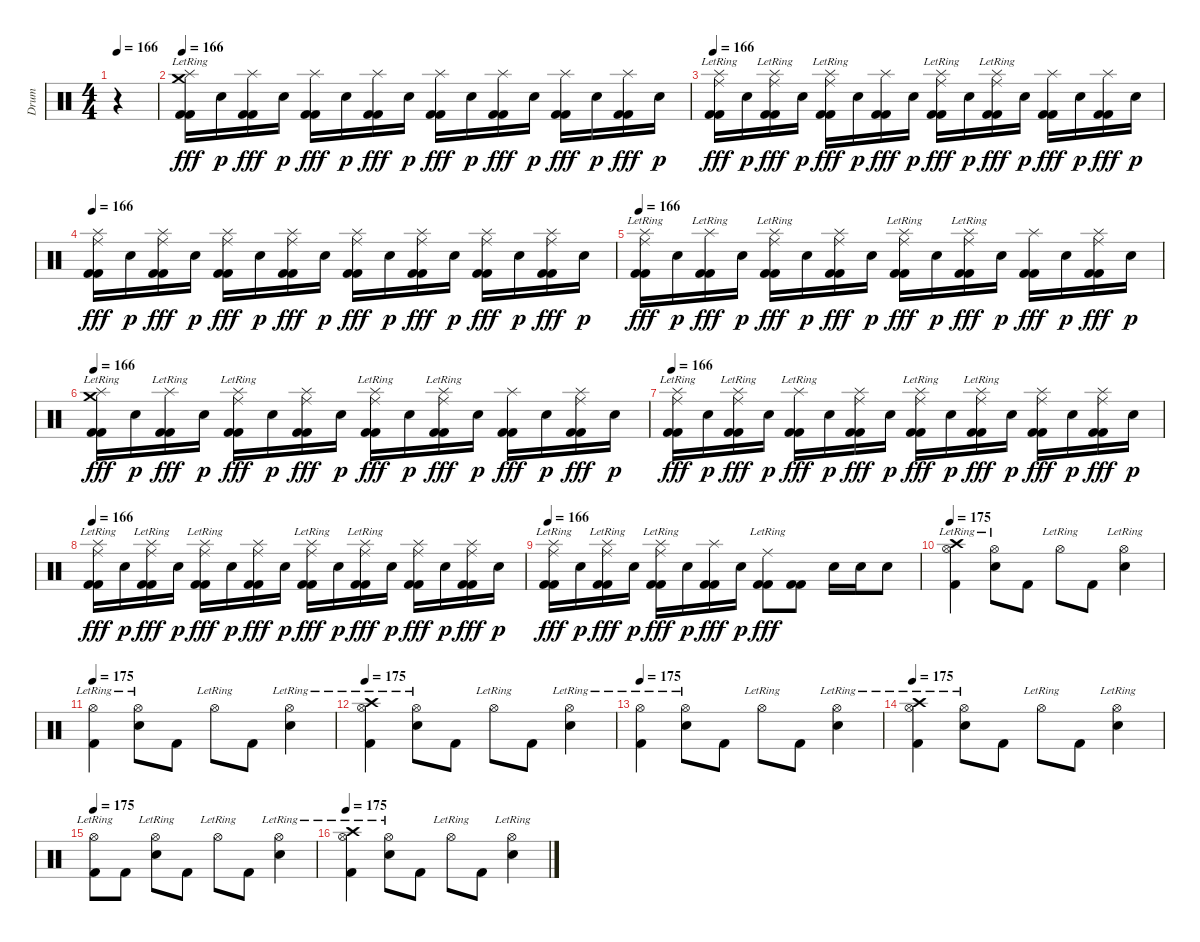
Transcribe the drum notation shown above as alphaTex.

\track ("Drum" "Drum") {instrument percussion}
\staff {score}
\articulation defaults
\ts (4 4)
\tempo 166
\clef neutral
\ks c
r.4{dy fff} |
\tempo 166
("Crash medium (hit)"{lr} "Splash (hit)" "Kick (hit) 2" "Kick (hit) 2").16 "Electric Snare (hit)".16{dy p} ("Splash (hit)" "Kick (hit) 2" "Kick (hit) 2").16{dy fff} "Electric Snare (hit)".16{dy p} ("Splash (hit)" "Kick (hit) 2" "Kick (hit) 2").16{dy fff} "Electric Snare (hit)".16{dy p} ("Splash (hit)" "Kick (hit) 2" "Kick (hit) 2").16{dy fff} "Electric Snare (hit)".16{dy p} ("Splash (hit)" "Kick (hit) 2" "Kick (hit) 2").16{dy fff} "Electric Snare (hit)".16{dy p} ("Splash (hit)" "Kick (hit) 2" "Kick (hit) 2").16{dy fff} "Electric Snare (hit)".16{dy p} ("Splash (hit)" "Kick (hit) 2" "Kick (hit) 2").16{dy fff} "Electric Snare (hit)".16{dy p} ("Splash (hit)" "Kick (hit) 2" "Kick (hit) 2").16{dy fff} "Electric Snare (hit)".16{dy p} |
\tempo 166
("Ride (middle)" "Splash (hit)"{lr} "Kick (hit) 2" "Kick (hit) 2").16{dy fff} "Electric Snare (hit)".16{dy p} ("Ride (middle)" "Splash (hit)"{lr} "Kick (hit) 2" "Kick (hit) 2").16{dy fff} "Electric Snare (hit)".16{dy p} ("Ride (middle)" "Splash (hit)"{lr} "Kick (hit) 2" "Kick (hit) 2").16{dy fff} "Electric Snare (hit)".16{dy p} ("Splash (hit)" "Kick (hit) 2" "Kick (hit) 2").16{dy fff} "Electric Snare (hit)".16{dy p} ("Ride (middle)" "Splash (hit)"{lr} "Kick (hit) 2" "Kick (hit) 2").16{dy fff} "Electric Snare (hit)".16{dy p} ("Ride (middle)" "Splash (hit)"{lr} "Kick (hit) 2" "Kick (hit) 2").16{dy fff} "Electric Snare (hit)".16{dy p} ("Splash (hit)" "Kick (hit) 2" "Kick (hit) 2").16{dy fff} "Electric Snare (hit)".16{dy p} ("Splash (hit)" "Kick (hit) 2" "Kick (hit) 2").16{dy fff} "Electric Snare (hit)".16{dy p} |
\tempo 166
("Ride (middle)" "Splash (hit)" "Kick (hit) 2" "Kick (hit) 2").16{dy fff} "Electric Snare (hit)".16{dy p} ("Ride (middle)" "Splash (hit)" "Kick (hit) 2" "Kick (hit) 2").16{dy fff} "Electric Snare (hit)".16{dy p} ("Ride (middle)" "Splash (hit)" "Kick (hit) 2" "Kick (hit) 2").16{dy fff} "Electric Snare (hit)".16{dy p} ("Ride (middle)" "Splash (hit)" "Kick (hit) 2" "Kick (hit) 2").16{dy fff} "Electric Snare (hit)".16{dy p} ("Ride (middle)" "Splash (hit)" "Kick (hit) 2" "Kick (hit) 2").16{dy fff} "Electric Snare (hit)".16{dy p} ("Ride (middle)" "Splash (hit)" "Kick (hit) 2" "Kick (hit) 2").16{dy fff} "Electric Snare (hit)".16{dy p} ("Ride (middle)" "Splash (hit)" "Kick (hit) 2" "Kick (hit) 2").16{dy fff} "Electric Snare (hit)".16{dy p} ("Ride (middle)" "Splash (hit)" "Kick (hit) 2" "Kick (hit) 2").16{dy fff} "Electric Snare (hit)".16{dy p} |
\tempo 166
("Ride (middle)" "Splash (hit)"{lr} "Kick (hit) 2" "Kick (hit) 2").16{dy fff} "Electric Snare (hit)".16{dy p} ("Splash (hit)"{lr} "Kick (hit) 2" "Kick (hit) 2").16{dy fff} "Electric Snare (hit)".16{dy p} ("Ride (middle)" "Splash (hit)"{lr} "Kick (hit) 2" "Kick (hit) 2").16{dy fff} "Electric Snare (hit)".16{dy p} ("Ride (middle)" "Splash (hit)" "Kick (hit) 2" "Kick (hit) 2").16{dy fff} "Electric Snare (hit)".16{dy p} ("Ride (middle)" "Splash (hit)"{lr} "Kick (hit) 2" "Kick (hit) 2").16{dy fff} "Electric Snare (hit)".16{dy p} ("Ride (middle)" "Splash (hit)"{lr} "Kick (hit) 2" "Kick (hit) 2").16{dy fff} "Electric Snare (hit)".16{dy p} ("Splash (hit)" "Kick (hit) 2" "Kick (hit) 2").16{dy fff} "Electric Snare (hit)".16{dy p} ("Ride (middle)" "Splash (hit)" "Kick (hit) 2" "Kick (hit) 2").16{dy fff} "Electric Snare (hit)".16{dy p} |
\tempo 166
("Crash medium (hit)"{lr} "Splash (hit)"{lr} "Kick (hit) 2" "Kick (hit) 2").16{dy fff} "Electric Snare (hit)".16{dy p} ("Splash (hit)"{lr} "Kick (hit) 2" "Kick (hit) 2").16{dy fff} "Electric Snare (hit)".16{dy p} ("Ride (middle)" "Splash (hit)"{lr} "Kick (hit) 2" "Kick (hit) 2").16{dy fff} "Electric Snare (hit)".16{dy p} ("Ride (middle)" "Splash (hit)" "Kick (hit) 2" "Kick (hit) 2").16{dy fff} "Electric Snare (hit)".16{dy p} ("Ride (middle)" "Splash (hit)"{lr} "Kick (hit) 2" "Kick (hit) 2").16{dy fff} "Electric Snare (hit)".16{dy p} ("Ride (middle)" "Splash (hit)"{lr} "Kick (hit) 2" "Kick (hit) 2").16{dy fff} "Electric Snare (hit)".16{dy p} ("Splash (hit)" "Kick (hit) 2" "Kick (hit) 2").16{dy fff} "Electric Snare (hit)".16{dy p} ("Ride (middle)" "Splash (hit)" "Kick (hit) 2" "Kick (hit) 2").16{dy fff} "Electric Snare (hit)".16{dy p} |
\tempo 166
("Ride (middle)" "Splash (hit)"{lr} "Kick (hit) 2" "Kick (hit) 2").16{dy fff} "Electric Snare (hit)".16{dy p} ("Ride (middle)" "Splash (hit)"{lr} "Kick (hit) 2" "Kick (hit) 2").16{dy fff} "Electric Snare (hit)".16{dy p} ("Splash (hit)"{lr} "Kick (hit) 2" "Kick (hit) 2").16{dy fff} "Electric Snare (hit)".16{dy p} ("Ride (middle)" "Splash (hit)" "Kick (hit) 2" "Kick (hit) 2").16{dy fff} "Electric Snare (hit)".16{dy p} ("Ride (middle)" "Splash (hit)"{lr} "Kick (hit) 2" "Kick (hit) 2").16{dy fff} "Electric Snare (hit)".16{dy p} ("Ride (middle)" "Splash (hit)"{lr} "Kick (hit) 2" "Kick (hit) 2").16{dy fff} "Electric Snare (hit)".16{dy p} ("Ride (middle)" "Splash (hit)" "Kick (hit) 2" "Kick (hit) 2").16{dy fff} "Electric Snare (hit)".16{dy p} ("Ride (middle)" "Splash (hit)" "Kick (hit) 2" "Kick (hit) 2").16{dy fff} "Electric Snare (hit)".16{dy p} |
\tempo 166
("Ride (middle)" "Splash (hit)"{lr} "Kick (hit) 2" "Kick (hit) 2").16{dy fff} "Electric Snare (hit)".16{dy p} ("Ride (middle)" "Splash (hit)"{lr} "Kick (hit) 2" "Kick (hit) 2").16{dy fff} "Electric Snare (hit)".16{dy p} ("Ride (middle)" "Splash (hit)"{lr} "Kick (hit) 2" "Kick (hit) 2").16{dy fff} "Electric Snare (hit)".16{dy p} ("Ride (middle)" "Splash (hit)" "Kick (hit) 2" "Kick (hit) 2").16{dy fff} "Electric Snare (hit)".16{dy p} ("Ride (middle)" "Splash (hit)"{lr} "Kick (hit) 2" "Kick (hit) 2").16{dy fff} "Electric Snare (hit)".16{dy p} ("Ride (middle)" "Splash (hit)"{lr} "Kick (hit) 2" "Kick (hit) 2").16{dy fff} "Electric Snare (hit)".16{dy p} ("Ride (middle)" "Splash (hit)" "Kick (hit) 2" "Kick (hit) 2").16{dy fff} "Electric Snare (hit)".16{dy p} ("Ride (middle)" "Splash (hit)" "Kick (hit) 2" "Kick (hit) 2").16{dy fff} "Electric Snare (hit)".16{dy p} |
\tempo 166
("Ride (middle)" "Splash (hit)"{lr} "Kick (hit) 2" "Kick (hit) 2").16{dy fff} "Electric Snare (hit)".16{dy p} ("Ride (middle)" "Splash (hit)"{lr} "Kick (hit) 2" "Kick (hit) 2").16{dy fff} "Electric Snare (hit)".16{dy p} ("Ride (middle)" "Splash (hit)"{lr} "Kick (hit) 2" "Kick (hit) 2").16{dy fff} "Electric Snare (hit)".16{dy p} ("Splash (hit)" "Kick (hit) 2" "Kick (hit) 2").16{dy fff} "Electric Snare (hit)".16{dy p} ("Ride (middle)"{lr} "Kick (hit) 2" "Kick (hit) 2").8{dy fff} ("Kick (hit) 2" "Kick (hit) 2").8 "Electric Snare (hit)".16 "Electric Snare (hit)".16 "Electric Snare (hit)".8 |
\tempo 175
("Crash high (hit)"{lr} "Hi-Hat (open)"{lr} "Kick (hit) 2").4 ("Hi-Hat (open)"{lr} "Electric Snare (hit)").8 "Kick (hit) 2".8 "Hi-Hat (open)"{lr}.8 "Kick (hit) 2".8 ("Hi-Hat (open)"{lr} "Electric Snare (hit)").4 |
\tempo 175
("Hi-Hat (open)"{lr} "Kick (hit) 2").4 ("Hi-Hat (open)"{lr} "Electric Snare (hit)").8 "Kick (hit) 2".8 "Hi-Hat (open)"{lr}.8 "Kick (hit) 2".8 ("Hi-Hat (open)"{lr} "Electric Snare (hit)").4 |
\tempo 175
("Crash high (hit)"{lr} "Hi-Hat (open)"{lr} "Kick (hit) 2").4 ("Hi-Hat (open)"{lr} "Electric Snare (hit)").8 "Kick (hit) 2".8 "Hi-Hat (open)"{lr}.8 "Kick (hit) 2".8 ("Hi-Hat (open)"{lr} "Electric Snare (hit)").4 |
\tempo 175
("Hi-Hat (open)"{lr} "Kick (hit) 2").4 ("Hi-Hat (open)"{lr} "Electric Snare (hit)").8 "Kick (hit) 2".8 "Hi-Hat (open)"{lr}.8 "Kick (hit) 2".8 ("Hi-Hat (open)"{lr} "Electric Snare (hit)").4 |
\tempo 175
("Crash high (hit)"{lr} "Hi-Hat (open)"{lr} "Kick (hit) 2").4 ("Hi-Hat (open)"{lr} "Electric Snare (hit)").8 "Kick (hit) 2".8 "Hi-Hat (open)"{lr}.8 "Kick (hit) 2".8 ("Hi-Hat (open)"{lr} "Electric Snare (hit)").4 |
\tempo 175
("Hi-Hat (open)"{lr} "Kick (hit) 2").8 "Kick (hit) 2".8 ("Hi-Hat (open)"{lr} "Electric Snare (hit)").8 "Kick (hit) 2".8 "Hi-Hat (open)"{lr}.8 "Kick (hit) 2".8 ("Hi-Hat (open)"{lr} "Electric Snare (hit)").4 |
\tempo 175
("Crash high (hit)"{lr} "Hi-Hat (open)"{lr} "Kick (hit) 2").4 ("Hi-Hat (open)"{lr} "Electric Snare (hit)").8 "Kick (hit) 2".8 "Hi-Hat (open)"{lr}.8 "Kick (hit) 2".8 ("Hi-Hat (open)"{lr} "Electric Snare (hit)").4
